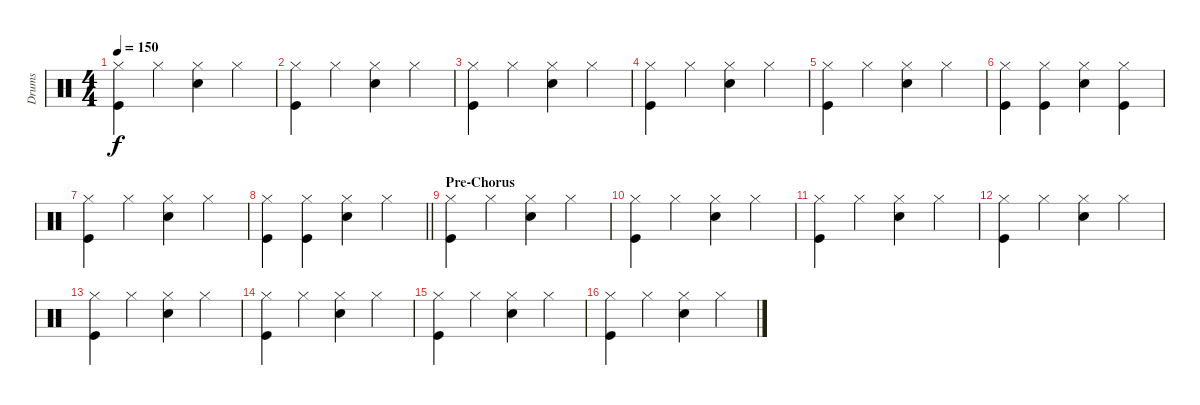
\track ("Drums" "Drums") {instrument percussion}
\staff {score}
\articulation defaults
\ts (4 4)
\tempo 150
\clef neutral
\ks c
("Hi-Hat (closed)" "Kick (hit)").4{dy f} "Hi-Hat (closed)".4 ("Hi-Hat (closed)" "Snare (hit) 2").4 "Hi-Hat (closed)".4 |
("Hi-Hat (closed)" "Kick (hit)").4 "Hi-Hat (closed)".4 ("Hi-Hat (closed)" "Snare (hit) 2").4 "Hi-Hat (closed)".4 |
("Hi-Hat (closed)" "Kick (hit)").4 "Hi-Hat (closed)".4 ("Hi-Hat (closed)" "Snare (hit) 2").4 "Hi-Hat (closed)".4 |
("Hi-Hat (closed)" "Kick (hit)").4 "Hi-Hat (closed)".4 ("Hi-Hat (closed)" "Snare (hit) 2").4 "Hi-Hat (closed)".4 |
("Hi-Hat (closed)" "Kick (hit)").4 "Hi-Hat (closed)".4 ("Hi-Hat (closed)" "Snare (hit) 2").4 "Hi-Hat (closed)".4 |
("Hi-Hat (closed)" "Kick (hit)").4 ("Hi-Hat (closed)" "Kick (hit)").4 ("Hi-Hat (closed)" "Snare (hit) 2").4 ("Hi-Hat (closed)" "Kick (hit)").4 |
("Hi-Hat (closed)" "Kick (hit)").4 "Hi-Hat (closed)".4 ("Hi-Hat (closed)" "Snare (hit) 2").4 "Hi-Hat (closed)".4 |
\barLineRight lightlight
("Hi-Hat (closed)" "Kick (hit)").4 ("Hi-Hat (closed)" "Kick (hit)").4 ("Hi-Hat (closed)" "Snare (hit) 2").4 "Hi-Hat (closed)".4 |
\section ("" "Pre-Chorus")
("Hi-Hat (closed)" "Kick (hit)").4 "Hi-Hat (closed)".4 ("Hi-Hat (closed)" "Snare (hit) 2").4 "Hi-Hat (closed)".4 |
("Hi-Hat (closed)" "Kick (hit)").4 "Hi-Hat (closed)".4 ("Hi-Hat (closed)" "Snare (hit) 2").4 "Hi-Hat (closed)".4 |
("Hi-Hat (closed)" "Kick (hit)").4 "Hi-Hat (closed)".4 ("Hi-Hat (closed)" "Snare (hit) 2").4 "Hi-Hat (closed)".4 |
("Hi-Hat (closed)" "Kick (hit)").4 "Hi-Hat (closed)".4 ("Hi-Hat (closed)" "Snare (hit) 2").4 "Hi-Hat (closed)".4 |
("Hi-Hat (closed)" "Kick (hit)").4 "Hi-Hat (closed)".4 ("Hi-Hat (closed)" "Snare (hit) 2").4 "Hi-Hat (closed)".4 |
("Hi-Hat (closed)" "Kick (hit)").4 "Hi-Hat (closed)".4 ("Hi-Hat (closed)" "Snare (hit) 2").4 "Hi-Hat (closed)".4 |
("Hi-Hat (closed)" "Kick (hit)").4 "Hi-Hat (closed)".4 ("Hi-Hat (closed)" "Snare (hit) 2").4 "Hi-Hat (closed)".4 |
("Hi-Hat (closed)" "Kick (hit)").4 "Hi-Hat (closed)".4 ("Hi-Hat (closed)" "Snare (hit) 2").4 "Hi-Hat (closed)".4
